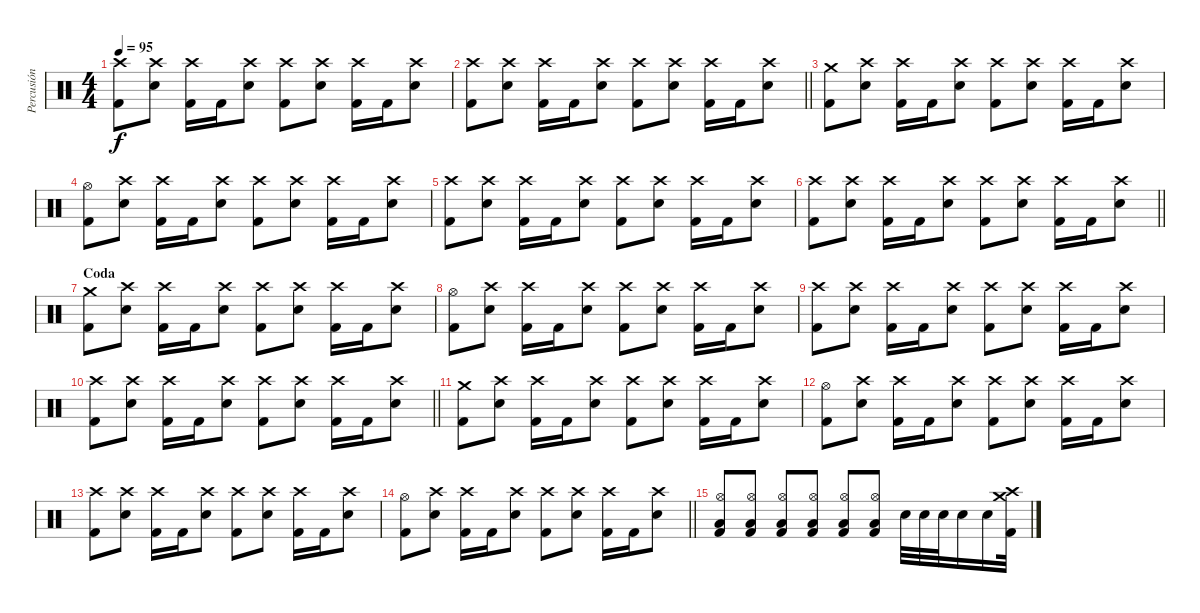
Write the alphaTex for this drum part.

\track ("Percusión" "Percusión") {instrument percussion}
\staff {score}
\articulation defaults
\ts (4 4)
\tempo 95
\clef neutral
\ks c
("Crash high (hit)" "Kick (hit) 2").8{dy f} ("Crash high (hit)" "Electric Snare (hit)").8 ("Crash high (hit)" "Kick (hit) 2").16 "Kick (hit) 2".16 ("Crash high (hit)" "Electric Snare (hit)").8 ("Crash high (hit)" "Kick (hit) 2").8 ("Crash high (hit)" "Electric Snare (hit)").8 ("Crash high (hit)" "Kick (hit) 2").16 "Kick (hit) 2".16 ("Crash high (hit)" "Electric Snare (hit)").8 |
\barLineRight lightlight
("Crash high (hit)" "Kick (hit) 2").8 ("Crash high (hit)" "Electric Snare (hit)").8 ("Crash high (hit)" "Kick (hit) 2").16 "Kick (hit) 2".16 ("Crash high (hit)" "Electric Snare (hit)").8 ("Crash high (hit)" "Kick (hit) 2").8 ("Crash high (hit)" "Electric Snare (hit)").8 ("Crash high (hit)" "Kick (hit) 2").16 "Kick (hit) 2".16 ("Crash high (hit)" "Electric Snare (hit)").8 |
("Crash medium (hit)" "Kick (hit) 2").8 ("Crash high (hit)" "Electric Snare (hit)").8 ("Crash high (hit)" "Kick (hit) 2").16 "Kick (hit) 2".16 ("Crash high (hit)" "Electric Snare (hit)").8 ("Crash high (hit)" "Kick (hit) 2").8 ("Crash high (hit)" "Electric Snare (hit)").8 ("Crash high (hit)" "Kick (hit) 2").16 "Kick (hit) 2".16 ("Crash high (hit)" "Electric Snare (hit)").8 |
("Hi-Hat (open)" "Kick (hit) 2").8 ("Crash high (hit)" "Electric Snare (hit)").8 ("Crash high (hit)" "Kick (hit) 2").16 "Kick (hit) 2".16 ("Crash high (hit)" "Electric Snare (hit)").8 ("Crash high (hit)" "Kick (hit) 2").8 ("Crash high (hit)" "Electric Snare (hit)").8 ("Crash high (hit)" "Kick (hit) 2").16 "Kick (hit) 2".16 ("Crash high (hit)" "Electric Snare (hit)").8 |
("Crash high (hit)" "Kick (hit) 2").8 ("Crash high (hit)" "Electric Snare (hit)").8 ("Crash high (hit)" "Kick (hit) 2").16 "Kick (hit) 2".16 ("Crash high (hit)" "Electric Snare (hit)").8 ("Crash high (hit)" "Kick (hit) 2").8 ("Crash high (hit)" "Electric Snare (hit)").8 ("Crash high (hit)" "Kick (hit) 2").16 "Kick (hit) 2".16 ("Crash high (hit)" "Electric Snare (hit)").8 |
\barLineRight lightlight
("Crash high (hit)" "Kick (hit) 2").8 ("Crash high (hit)" "Electric Snare (hit)").8 ("Crash high (hit)" "Kick (hit) 2").16 "Kick (hit) 2".16 ("Crash high (hit)" "Electric Snare (hit)").8 ("Crash high (hit)" "Kick (hit) 2").8 ("Crash high (hit)" "Electric Snare (hit)").8 ("Crash high (hit)" "Kick (hit) 2").16 "Kick (hit) 2".16 ("Crash high (hit)" "Electric Snare (hit)").8 |
\section ("" "Coda")
("Crash medium (hit)" "Kick (hit) 2").8 ("Crash high (hit)" "Electric Snare (hit)").8 ("Crash high (hit)" "Kick (hit) 2").16 "Kick (hit) 2".16 ("Crash high (hit)" "Electric Snare (hit)").8 ("Crash high (hit)" "Kick (hit) 2").8 ("Crash high (hit)" "Electric Snare (hit)").8 ("Crash high (hit)" "Kick (hit) 2").16 "Kick (hit) 2".16 ("Crash high (hit)" "Electric Snare (hit)").8 |
("Hi-Hat (open)" "Kick (hit) 2").8 ("Crash high (hit)" "Electric Snare (hit)").8 ("Crash high (hit)" "Kick (hit) 2").16 "Kick (hit) 2".16 ("Crash high (hit)" "Electric Snare (hit)").8 ("Crash high (hit)" "Kick (hit) 2").8 ("Crash high (hit)" "Electric Snare (hit)").8 ("Crash high (hit)" "Kick (hit) 2").16 "Kick (hit) 2".16 ("Crash high (hit)" "Electric Snare (hit)").8 |
("Crash high (hit)" "Kick (hit) 2").8 ("Crash high (hit)" "Electric Snare (hit)").8 ("Crash high (hit)" "Kick (hit) 2").16 "Kick (hit) 2".16 ("Crash high (hit)" "Electric Snare (hit)").8 ("Crash high (hit)" "Kick (hit) 2").8 ("Crash high (hit)" "Electric Snare (hit)").8 ("Crash high (hit)" "Kick (hit) 2").16 "Kick (hit) 2".16 ("Crash high (hit)" "Electric Snare (hit)").8 |
\barLineRight lightlight
("Crash high (hit)" "Kick (hit) 2").8 ("Crash high (hit)" "Electric Snare (hit)").8 ("Crash high (hit)" "Kick (hit) 2").16 "Kick (hit) 2".16 ("Crash high (hit)" "Electric Snare (hit)").8 ("Crash high (hit)" "Kick (hit) 2").8 ("Crash high (hit)" "Electric Snare (hit)").8 ("Crash high (hit)" "Kick (hit) 2").16 "Kick (hit) 2".16 ("Crash high (hit)" "Electric Snare (hit)").8 |
("Crash medium (hit)" "Kick (hit) 2").8 ("Crash high (hit)" "Electric Snare (hit)").8 ("Crash high (hit)" "Kick (hit) 2").16 "Kick (hit) 2".16 ("Crash high (hit)" "Electric Snare (hit)").8 ("Crash high (hit)" "Kick (hit) 2").8 ("Crash high (hit)" "Electric Snare (hit)").8 ("Crash high (hit)" "Kick (hit) 2").16 "Kick (hit) 2".16 ("Crash high (hit)" "Electric Snare (hit)").8 |
("Hi-Hat (open)" "Kick (hit) 2").8 ("Crash high (hit)" "Electric Snare (hit)").8 ("Crash high (hit)" "Kick (hit) 2").16 "Kick (hit) 2".16 ("Crash high (hit)" "Electric Snare (hit)").8 ("Crash high (hit)" "Kick (hit) 2").8 ("Crash high (hit)" "Electric Snare (hit)").8 ("Crash high (hit)" "Kick (hit) 2").16 "Kick (hit) 2".16 ("Crash high (hit)" "Electric Snare (hit)").8 |
("Crash high (hit)" "Kick (hit) 2").8 ("Crash high (hit)" "Electric Snare (hit)").8 ("Crash high (hit)" "Kick (hit) 2").16 "Kick (hit) 2".16 ("Crash high (hit)" "Electric Snare (hit)").8 ("Crash high (hit)" "Kick (hit) 2").8 ("Crash high (hit)" "Electric Snare (hit)").8 ("Crash high (hit)" "Kick (hit) 2").16 "Kick (hit) 2".16 ("Crash high (hit)" "Electric Snare (hit)").8 |
\barLineRight lightlight
("Hi-Hat (open)" "Kick (hit) 2").8 ("Crash high (hit)" "Electric Snare (hit)").8 ("Crash high (hit)" "Kick (hit) 2").16 "Kick (hit) 2".16 ("Crash high (hit)" "Electric Snare (hit)").8 ("Crash high (hit)" "Kick (hit) 2").8 ("Crash high (hit)" "Electric Snare (hit)").8 ("Crash high (hit)" "Kick (hit) 2").16 "Kick (hit) 2".16 ("Crash high (hit)" "Electric Snare (hit)").8 |
("Hi-Hat (open)" "Low Floor Tom (hit)" "Kick (hit) 2").8 ("Hi-Hat (open)" "Low Floor Tom (hit)" "Kick (hit) 2").8 ("Hi-Hat (open)" "Low Floor Tom (hit)" "Kick (hit) 2").8 ("Hi-Hat (open)" "Low Floor Tom (hit)" "Kick (hit) 2").8 ("Hi-Hat (open)" "Low Floor Tom (hit)" "Kick (hit) 2").8 ("Hi-Hat (open)" "Low Floor Tom (hit)" "Kick (hit) 2").8 "Electric Snare (hit)".32 "Electric Snare (hit)".32 "Electric Snare (hit)".32 "Electric Snare (hit)".16 "Electric Snare (hit)".16 ("Crash high (hit)" "Crash medium (hit)" "Kick (hit) 2").32
